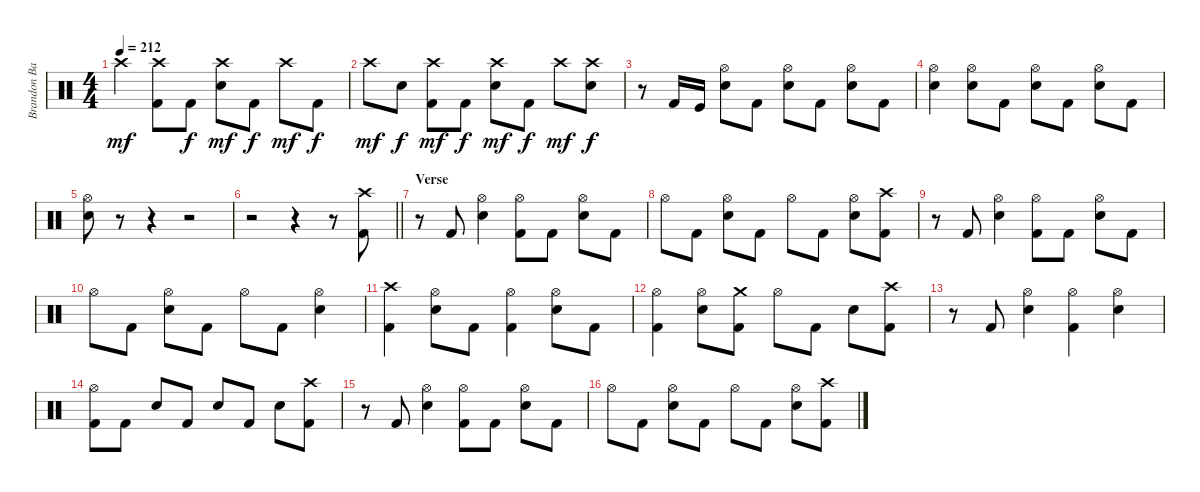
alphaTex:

\track ("Brandon Barnes - Drums" "Brandon Ba") {instrument percussion}
\staff {score}
\articulation defaults
\ts (4 4)
\tempo 212
\clef neutral
\ks c "Crash high (hit)".4{dy mf}
("Kick (hit) 2" "Crash high (hit)").8 "Kick (hit) 2".8{dy f} ("Snare (hit) 2" "Crash high (hit)").8{dy mf} "Kick (hit) 2".8{dy f} "Crash high (hit)".8{dy mf} "Kick (hit) 2".8{dy f} |
"Crash high (hit)".8{dy mf} "Snare (hit) 2".8{dy f} ("Kick (hit) 2" "Crash high (hit)").8{dy mf} "Kick (hit) 2".8{dy f} ("Snare (hit) 2" "Crash high (hit)").8{dy mf} "Kick (hit) 2".8{dy f} "Crash high (hit)".8{dy mf} ("Snare (hit) 2" "Crash high (hit)").8{dy f} |
r.8 "Kick (hit) 2".16 "Kick (hit)".16 ("Hi-Hat (open)" "Snare (hit) 2").8 "Kick (hit) 2".8 ("Hi-Hat (open)" "Snare (hit) 2").8 "Kick (hit) 2".8 ("Hi-Hat (open)" "Snare (hit) 2").8 "Kick (hit) 2".8 |
("Hi-Hat (open)" "Snare (hit) 2").4 ("Hi-Hat (open)" "Snare (hit) 2").8 "Kick (hit) 2".8 ("Hi-Hat (open)" "Snare (hit) 2").8 "Kick (hit) 2".8 ("Hi-Hat (open)" "Snare (hit) 2").8 "Kick (hit) 2".8 |
("Hi-Hat (open)" "Snare (hit) 2").8 r.8 r.4 r.2 |
\barLineRight lightlight
r.2 r.4 r.8 ("Kick (hit) 2" "Crash high (hit)").8 |
\section ("" "Verse")
r.8 "Kick (hit) 2".8 ("Snare (hit) 2" "Hi-Hat (open)").4 ("Kick (hit) 2" "Hi-Hat (open)").8 "Kick (hit) 2".8 ("Snare (hit) 2" "Hi-Hat (open)").8 "Kick (hit) 2".8 |
"Hi-Hat (open)".8 "Kick (hit) 2".8 ("Snare (hit) 2" "Hi-Hat (open)").8 "Kick (hit) 2".8 "Hi-Hat (open)".8 "Kick (hit) 2".8 ("Snare (hit) 2" "Hi-Hat (open)").8 ("Kick (hit) 2" "Crash high (hit)").8 |
r.8 "Kick (hit) 2".8 ("Snare (hit) 2" "Hi-Hat (open)").4 ("Kick (hit) 2" "Hi-Hat (open)").8 "Kick (hit) 2".8 ("Snare (hit) 2" "Hi-Hat (open)").8 "Kick (hit) 2".8 |
"Hi-Hat (open)".8 "Kick (hit) 2".8 ("Snare (hit) 2" "Hi-Hat (open)").8 "Kick (hit) 2".8 "Hi-Hat (open)".8 "Kick (hit) 2".8 ("Snare (hit) 2" "Hi-Hat (open)").4 |
("Kick (hit) 2" "Crash high (hit)").4 ("Snare (hit) 2" "Hi-Hat (open)").8 "Kick (hit) 2".8 ("Kick (hit) 2" "Hi-Hat (open)").4 ("Snare (hit) 2" "Hi-Hat (open)").8 "Kick (hit) 2".8 |
("Kick (hit) 2" "Hi-Hat (open)").4 ("Snare (hit) 2" "Hi-Hat (open)").8 ("Kick (hit) 2" "Crash medium (hit)").8 "Hi-Hat (open)".8 "Kick (hit) 2".8 "Snare (hit) 2".8 ("Kick (hit) 2" "Crash high (hit)").8 |
r.8 "Kick (hit) 2".8 ("Snare (hit) 2" "Hi-Hat (open)").4 ("Kick (hit) 2" "Hi-Hat (open)").4 ("Snare (hit) 2" "Hi-Hat (open)").4 |
("Kick (hit) 2" "Hi-Hat (open)").8 "Kick (hit) 2".8 "Snare (hit) 2".8 "Kick (hit) 2".8 "Snare (hit) 2".8 "Kick (hit) 2".8 "Snare (hit) 2".8 ("Kick (hit) 2" "Crash high (hit)").8 |
r.8 "Kick (hit) 2".8 ("Snare (hit) 2" "Hi-Hat (open)").4 ("Kick (hit) 2" "Hi-Hat (open)").8 "Kick (hit) 2".8 ("Snare (hit) 2" "Hi-Hat (open)").8 "Kick (hit) 2".8 |
"Hi-Hat (open)".8 "Kick (hit) 2".8 ("Snare (hit) 2" "Hi-Hat (open)").8 "Kick (hit) 2".8 "Hi-Hat (open)".8 "Kick (hit) 2".8 ("Snare (hit) 2" "Hi-Hat (open)").8 ("Kick (hit) 2" "Crash high (hit)").8
